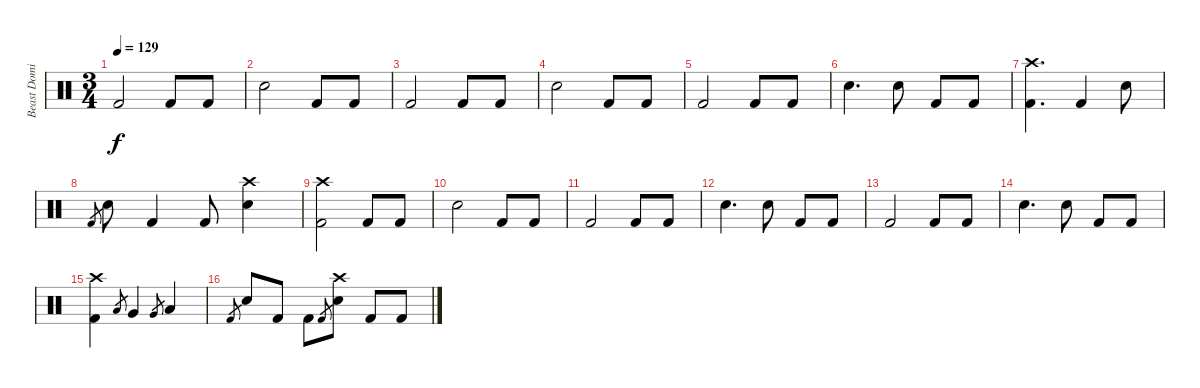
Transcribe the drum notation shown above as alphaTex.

\track ("Beast Dominator" "Beast Domi") {instrument percussion}
\staff
\articulation defaults
\ts (3 4)
\tempo 129
\clef neutral
\ks c "Kick (hit) 2".2{dy f} "Kick (hit) 2".8 "Kick (hit) 2".8
|
"Snare (hit) 2".2 "Kick (hit) 2".8 "Kick (hit) 2".8 |
"Kick (hit) 2".2 "Kick (hit) 2".8 "Kick (hit) 2".8 |
"Snare (hit) 2".2 "Kick (hit) 2".8 "Kick (hit) 2".8 |
"Kick (hit) 2".2 "Kick (hit) 2".8 "Kick (hit) 2".8 |
"Snare (hit) 2".4{d} "Snare (hit) 2".8 "Kick (hit) 2".8 "Kick (hit) 2".8 |
("Crash high (hit)" "Kick (hit) 2").4{d} "Kick (hit) 2".4 "Snare (hit) 2".8 |
"Kick (hit) 2".8{gr} "Snare (hit) 2".8 "Kick (hit) 2".4 "Kick (hit) 2".8 ("Crash high (hit)" "Snare (hit) 2").4 |
("Crash high (hit)" "Kick (hit) 2").2 "Kick (hit) 2".8 "Kick (hit) 2".8 |
"Snare (hit) 2".2 "Kick (hit) 2".8 "Kick (hit) 2".8 |
"Kick (hit) 2".2 "Kick (hit) 2".8 "Kick (hit) 2".8 |
"Snare (hit) 2".4{d} "Snare (hit) 2".8 "Kick (hit) 2".8 "Kick (hit) 2".8 |
"Kick (hit) 2".2 "Kick (hit) 2".8 "Kick (hit) 2".8 |
"Snare (hit) 2".4{d} "Snare (hit) 2".8 "Kick (hit) 2".8 "Kick (hit) 2".8 |
("Crash high (hit)" "Kick (hit) 2").4 "Low Tom (hit)".8{gr} "Very Low Tom (hit)".4 "Very Low Tom (hit)".8{gr} "Low Floor Tom (hit)".4 |
"Kick (hit) 2".8{gr} "Snare (hit) 2".8 "Kick (hit) 2".8 "Kick (hit) 2".8 "Kick (hit) 2".8{gr} ("Crash high (hit)" "Snare (hit) 2").8 "Kick (hit) 2".8 "Kick (hit) 2".8
